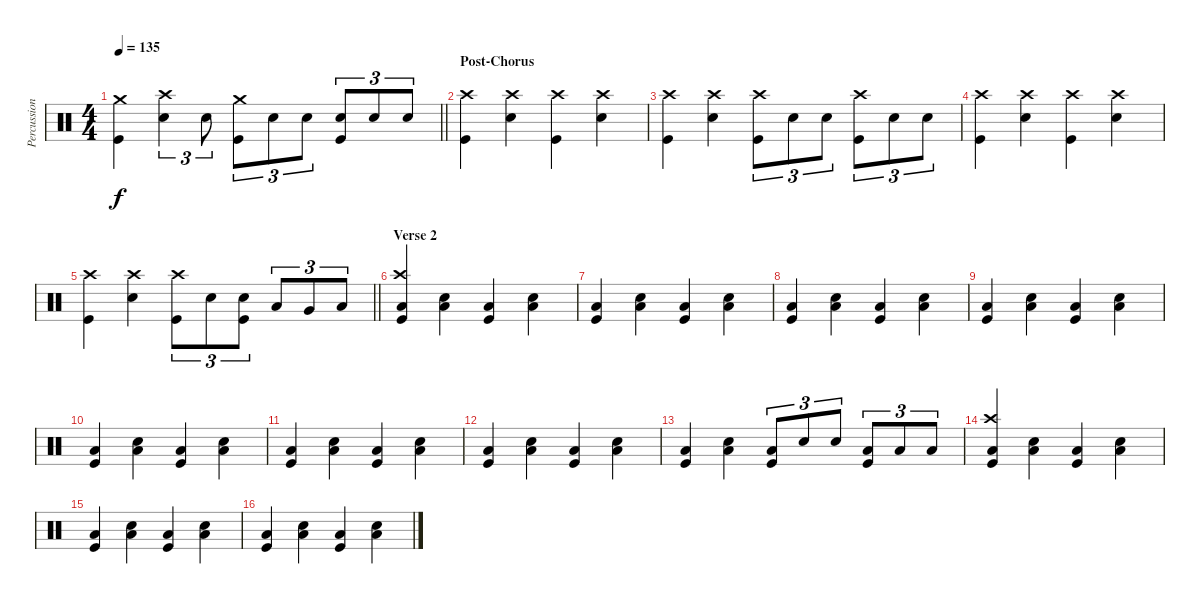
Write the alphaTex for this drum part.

\track ("Percussion" "Percussion") {instrument percussion}
\staff {score}
\articulation defaults
\ts (4 4)
\tempo 135
\clef neutral
\barLineRight lightlight
\ks c
("Crash medium (hit)" "Kick (hit)").4{dy f} ("Crash high (hit)" "Electric Snare (hit)").4{tu (3 2)} "Electric Snare (hit)".8{tu (3 2)} ("Crash medium (hit)" "Kick (hit)").8{tu (3 2)} "Electric Snare (hit)".8{tu (3 2)} "Electric Snare (hit)".8{tu (3 2)} ("Electric Snare (hit)" "Kick (hit)").8{tu (3 2)} "Electric Snare (hit)".8{tu (3 2)} "Electric Snare (hit)".8{tu (3 2)} |
\section ("" "Post-Chorus")
("Crash high (hit)" "Kick (hit)").4 ("Crash high (hit)" "Snare (hit) 2").4 ("Crash high (hit)" "Kick (hit)").4 ("Crash high (hit)" "Snare (hit) 2").4 |
("Crash high (hit)" "Kick (hit)").4 ("Crash high (hit)" "Snare (hit) 2").4 ("Crash high (hit)" "Kick (hit)").8{tu (3 2)} "Snare (hit) 2".8{tu (3 2)} "Snare (hit) 2".8{tu (3 2)} ("Crash high (hit)" "Kick (hit)").8{tu (3 2)} "Snare (hit) 2".8{tu (3 2)} "Snare (hit) 2".8{tu (3 2)} |
("Crash high (hit)" "Kick (hit)").4 ("Crash high (hit)" "Snare (hit) 2").4 ("Crash high (hit)" "Kick (hit)").4 ("Crash high (hit)" "Snare (hit) 2").4 |
\barLineRight lightlight
("Crash high (hit)" "Kick (hit)").4 ("Crash high (hit)" "Snare (hit) 2").4 ("Crash high (hit)" "Kick (hit)").8{tu (3 2)} "Snare (hit) 2".8{tu (3 2)} ("Snare (hit) 2" "Kick (hit)").8{tu (3 2)} "Low Floor Tom (hit)".8{tu (3 2)} "Very Low Tom (hit)".8{tu (3 2)} "Low Floor Tom (hit)".8{tu (3 2)} |
\section ("" "Verse 2")
("Crash high (hit)" "Low Floor Tom (hit)" "Kick (hit)").4 ("Electric Snare (hit)" "Low Floor Tom (hit)").4 ("Low Floor Tom (hit)" "Kick (hit)").4 ("Electric Snare (hit)" "Low Floor Tom (hit)").4 |
("Low Floor Tom (hit)" "Kick (hit)").4 ("Electric Snare (hit)" "Low Floor Tom (hit)").4 ("Low Floor Tom (hit)" "Kick (hit)").4 ("Electric Snare (hit)" "Low Floor Tom (hit)").4 |
("Low Floor Tom (hit)" "Kick (hit)").4 ("Electric Snare (hit)" "Low Floor Tom (hit)").4 ("Low Floor Tom (hit)" "Kick (hit)").4 ("Electric Snare (hit)" "Low Floor Tom (hit)").4 |
("Low Floor Tom (hit)" "Kick (hit)").4 ("Electric Snare (hit)" "Low Floor Tom (hit)").4 ("Low Floor Tom (hit)" "Kick (hit)").4 ("Electric Snare (hit)" "Low Floor Tom (hit)").4 |
("Low Floor Tom (hit)" "Kick (hit)").4 ("Electric Snare (hit)" "Low Floor Tom (hit)").4 ("Low Floor Tom (hit)" "Kick (hit)").4 ("Electric Snare (hit)" "Low Floor Tom (hit)").4 |
("Low Floor Tom (hit)" "Kick (hit)").4 ("Electric Snare (hit)" "Low Floor Tom (hit)").4 ("Low Floor Tom (hit)" "Kick (hit)").4 ("Electric Snare (hit)" "Low Floor Tom (hit)").4 |
("Low Floor Tom (hit)" "Kick (hit)").4 ("Electric Snare (hit)" "Low Floor Tom (hit)").4 ("Low Floor Tom (hit)" "Kick (hit)").4 ("Electric Snare (hit)" "Low Floor Tom (hit)").4 |
("Low Floor Tom (hit)" "Kick (hit)").4 ("Electric Snare (hit)" "Low Floor Tom (hit)").4 ("Low Floor Tom (hit)" "Kick (hit)").8{tu (3 2)} "Snare (hit) 2".8{tu (3 2)} "Snare (hit) 2".8{tu (3 2)} ("Low Tom (hit)" "Kick (hit)").8{tu (3 2)} "Low Tom (hit)".8{tu (3 2)} "Low Floor Tom (hit)".8{tu (3 2)} |
("Crash high (hit)" "Low Floor Tom (hit)" "Kick (hit)").4 ("Electric Snare (hit)" "Low Floor Tom (hit)").4 ("Low Floor Tom (hit)" "Kick (hit)").4 ("Electric Snare (hit)" "Low Floor Tom (hit)").4 |
("Low Floor Tom (hit)" "Kick (hit)").4 ("Electric Snare (hit)" "Low Floor Tom (hit)").4 ("Low Floor Tom (hit)" "Kick (hit)").4 ("Electric Snare (hit)" "Low Floor Tom (hit)").4 |
("Low Floor Tom (hit)" "Kick (hit)").4 ("Electric Snare (hit)" "Low Floor Tom (hit)").4 ("Low Floor Tom (hit)" "Kick (hit)").4 ("Electric Snare (hit)" "Low Floor Tom (hit)").4
